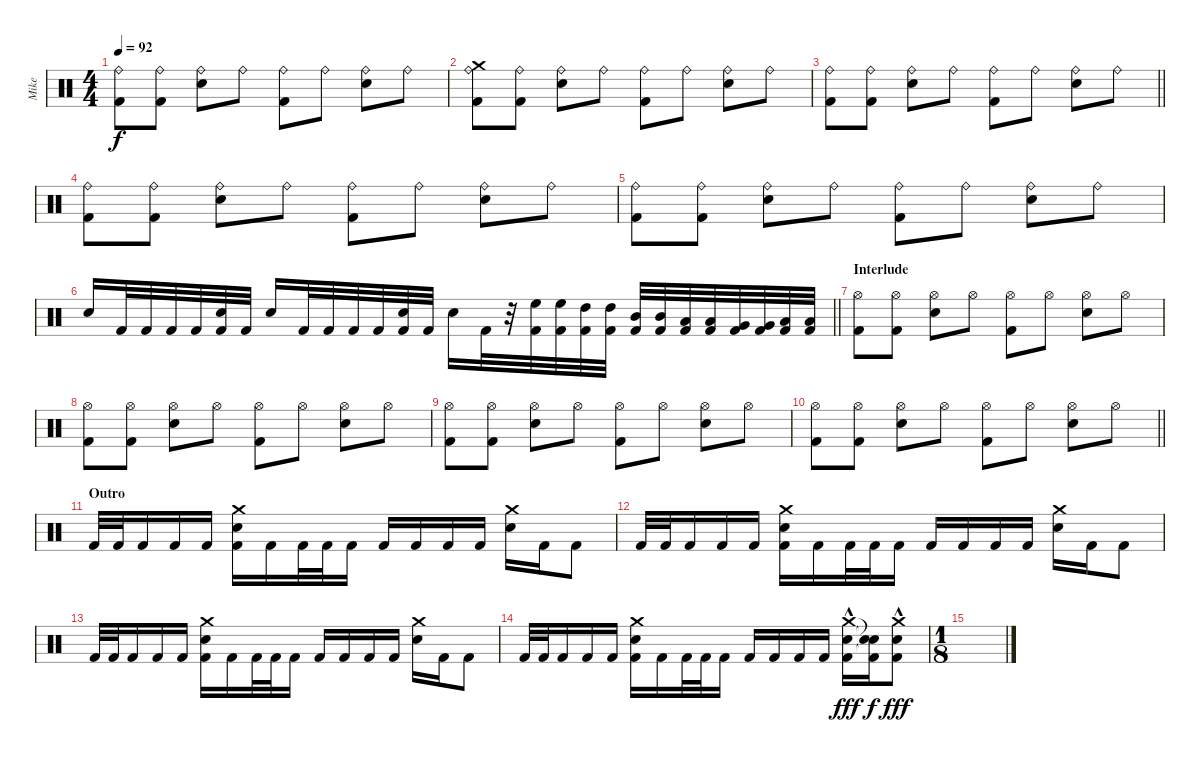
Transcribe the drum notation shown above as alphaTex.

\track ("Mike" "Mike") {instrument percussion}
\staff {score}
\articulation defaults
\ts (4 4)
\tempo 92
\clef neutral
\ks c
("Kick (hit) 2" "Ride (bell)").8{dy f} ("Kick (hit) 2" "Ride (bell)").8 ("Electric Snare (hit)" "Ride (bell)").8 "Ride (bell)".8 ("Kick (hit) 2" "Ride (bell)").8 "Ride (bell)".8 ("Electric Snare (hit)" "Ride (bell)").8 "Ride (bell)".8 |
("Kick (hit) 2" "Ride (bell)" "Crash medium (hit)").8 ("Kick (hit) 2" "Ride (bell)").8 ("Electric Snare (hit)" "Ride (bell)").8 "Ride (bell)".8 ("Kick (hit) 2" "Ride (bell)").8 "Ride (bell)".8 ("Electric Snare (hit)" "Ride (bell)").8 "Ride (bell)".8 |
\barLineRight lightlight
("Kick (hit) 2" "Ride (bell)").8 ("Kick (hit) 2" "Ride (bell)").8 ("Electric Snare (hit)" "Ride (bell)").8 "Ride (bell)".8 ("Kick (hit) 2" "Ride (bell)").8 "Ride (bell)".8 ("Electric Snare (hit)" "Ride (bell)").8 "Ride (bell)".8 |
("Kick (hit) 2" "Ride (bell)").8 ("Kick (hit) 2" "Ride (bell)").8 ("Electric Snare (hit)" "Ride (bell)").8 "Ride (bell)".8 ("Kick (hit) 2" "Ride (bell)").8 "Ride (bell)".8 ("Electric Snare (hit)" "Ride (bell)").8 "Ride (bell)".8 |
("Kick (hit) 2" "Ride (bell)").8 ("Kick (hit) 2" "Ride (bell)").8 ("Electric Snare (hit)" "Ride (bell)").8 "Ride (bell)".8 ("Kick (hit) 2" "Ride (bell)").8 "Ride (bell)".8 ("Electric Snare (hit)" "Ride (bell)").8 "Ride (bell)".8 |
\barLineRight lightlight "Electric Snare (hit)".16 "Kick (hit) 2".32 "Kick (hit) 2".32 "Kick (hit) 2".32 "Kick (hit) 2".32
("Kick (hit) 2" "Electric Snare (hit)").32 "Kick (hit) 2".32 "Electric Snare (hit)".16 "Kick (hit) 2".32 "Kick (hit) 2".32 "Kick (hit) 2".32 "Kick (hit) 2".32 ("Kick (hit) 2" "Electric Snare (hit)").32 "Kick (hit) 2".32 "Electric Snare (hit)".16 "Kick (hit) 2".32 r.32 ("Kick (hit) 2" "High Floor Tom (hit)").32 ("Kick (hit) 2" "High Floor Tom (hit)").32 ("Kick (hit) 2" "High Tom (hit)").32 ("Kick (hit) 2" "High Tom (hit)").32 ("Kick (hit) 2" "Mid Tom (hit)").32 ("Kick (hit) 2" "Mid Tom (hit)").32 ("Kick (hit) 2" "Low Tom (hit)").32 ("Kick (hit) 2" "Low Tom (hit)").32 ("Kick (hit) 2" "Very Low Tom (hit)").32 ("Kick (hit) 2" "Very Low Tom (hit)").32 ("Kick (hit) 2" "Low Floor Tom (hit)").32 ("Kick (hit) 2" "Low Floor Tom (hit)").32 |
\section ("" "Interlude")
("Kick (hit) 2" "Hi-Hat (open)").8 ("Kick (hit) 2" "Hi-Hat (open)").8 ("Electric Snare (hit)" "Hi-Hat (open)").8 "Hi-Hat (open)".8 ("Kick (hit) 2" "Hi-Hat (open)").8 "Hi-Hat (open)".8 ("Electric Snare (hit)" "Hi-Hat (open)").8 "Hi-Hat (open)".8 |
("Kick (hit) 2" "Hi-Hat (open)").8 ("Kick (hit) 2" "Hi-Hat (open)").8 ("Electric Snare (hit)" "Hi-Hat (open)").8 "Hi-Hat (open)".8 ("Kick (hit) 2" "Hi-Hat (open)").8 "Hi-Hat (open)".8 ("Electric Snare (hit)" "Hi-Hat (open)").8 "Hi-Hat (open)".8 |
("Kick (hit) 2" "Hi-Hat (open)").8 ("Kick (hit) 2" "Hi-Hat (open)").8 ("Electric Snare (hit)" "Hi-Hat (open)").8 "Hi-Hat (open)".8 ("Kick (hit) 2" "Hi-Hat (open)").8 "Hi-Hat (open)".8 ("Electric Snare (hit)" "Hi-Hat (open)").8 "Hi-Hat (open)".8 |
\barLineRight lightlight
("Kick (hit) 2" "Hi-Hat (open)").8 ("Kick (hit) 2" "Hi-Hat (open)").8 ("Electric Snare (hit)" "Hi-Hat (open)").8 "Hi-Hat (open)".8 ("Kick (hit) 2" "Hi-Hat (open)").8 "Hi-Hat (open)".8 ("Electric Snare (hit)" "Hi-Hat (open)").8 "Hi-Hat (open)".8 |
\section ("" "Outro")
"Kick (hit) 2".32 "Kick (hit) 2".32 "Kick (hit) 2".16 "Kick (hit) 2".16 "Kick (hit) 2".16 ("Kick (hit) 2" "Electric Snare (hit)" "Crash medium (hit)").16 "Kick (hit) 2".16 "Kick (hit) 2".32 "Kick (hit) 2".32 "Kick (hit) 2".16 "Kick (hit) 2".16 "Kick (hit) 2".16 "Kick (hit) 2".16 "Kick (hit) 2".16 ("Electric Snare (hit)" "Crash medium (hit)").16 "Kick (hit) 2".16 "Kick (hit) 2".8 |
"Kick (hit) 2".32 "Kick (hit) 2".32 "Kick (hit) 2".16 "Kick (hit) 2".16 "Kick (hit) 2".16 ("Kick (hit) 2" "Electric Snare (hit)" "Crash medium (hit)").16 "Kick (hit) 2".16 "Kick (hit) 2".32 "Kick (hit) 2".32 "Kick (hit) 2".16 "Kick (hit) 2".16 "Kick (hit) 2".16 "Kick (hit) 2".16 "Kick (hit) 2".16 ("Electric Snare (hit)" "Crash medium (hit)").16 "Kick (hit) 2".16 "Kick (hit) 2".8 |
"Kick (hit) 2".32 "Kick (hit) 2".32 "Kick (hit) 2".16 "Kick (hit) 2".16 "Kick (hit) 2".16 ("Kick (hit) 2" "Electric Snare (hit)" "Crash medium (hit)").16 "Kick (hit) 2".16 "Kick (hit) 2".32 "Kick (hit) 2".32 "Kick (hit) 2".16 "Kick (hit) 2".16 "Kick (hit) 2".16 "Kick (hit) 2".16 "Kick (hit) 2".16 ("Electric Snare (hit)" "Crash medium (hit)").16 "Kick (hit) 2".16 "Kick (hit) 2".8 |
"Kick (hit) 2".32 "Kick (hit) 2".32 "Kick (hit) 2".16 "Kick (hit) 2".16 "Kick (hit) 2".16 ("Kick (hit) 2" "Electric Snare (hit)" "Crash medium (hit)").16 "Kick (hit) 2".16 "Kick (hit) 2".32 "Kick (hit) 2".32 "Kick (hit) 2".16 "Kick (hit) 2".16 "Kick (hit) 2".16 "Kick (hit) 2".16 "Kick (hit) 2".16 ("Kick (hit) 2"{hac} "Electric Snare (hit)"{hac} "Crash medium (hit)"{hac}).16{dy fff volume 16} ("Kick (hit) 2"{t} "Snare (hit)"{t} "Snare (hit)"{t}).16{dy f} ("Kick (hit) 2"{hac} "Electric Snare (hit)"{hac} "Crash medium (hit)"{hac}).8{dy fff volume 16} |
\ts (1 8)
